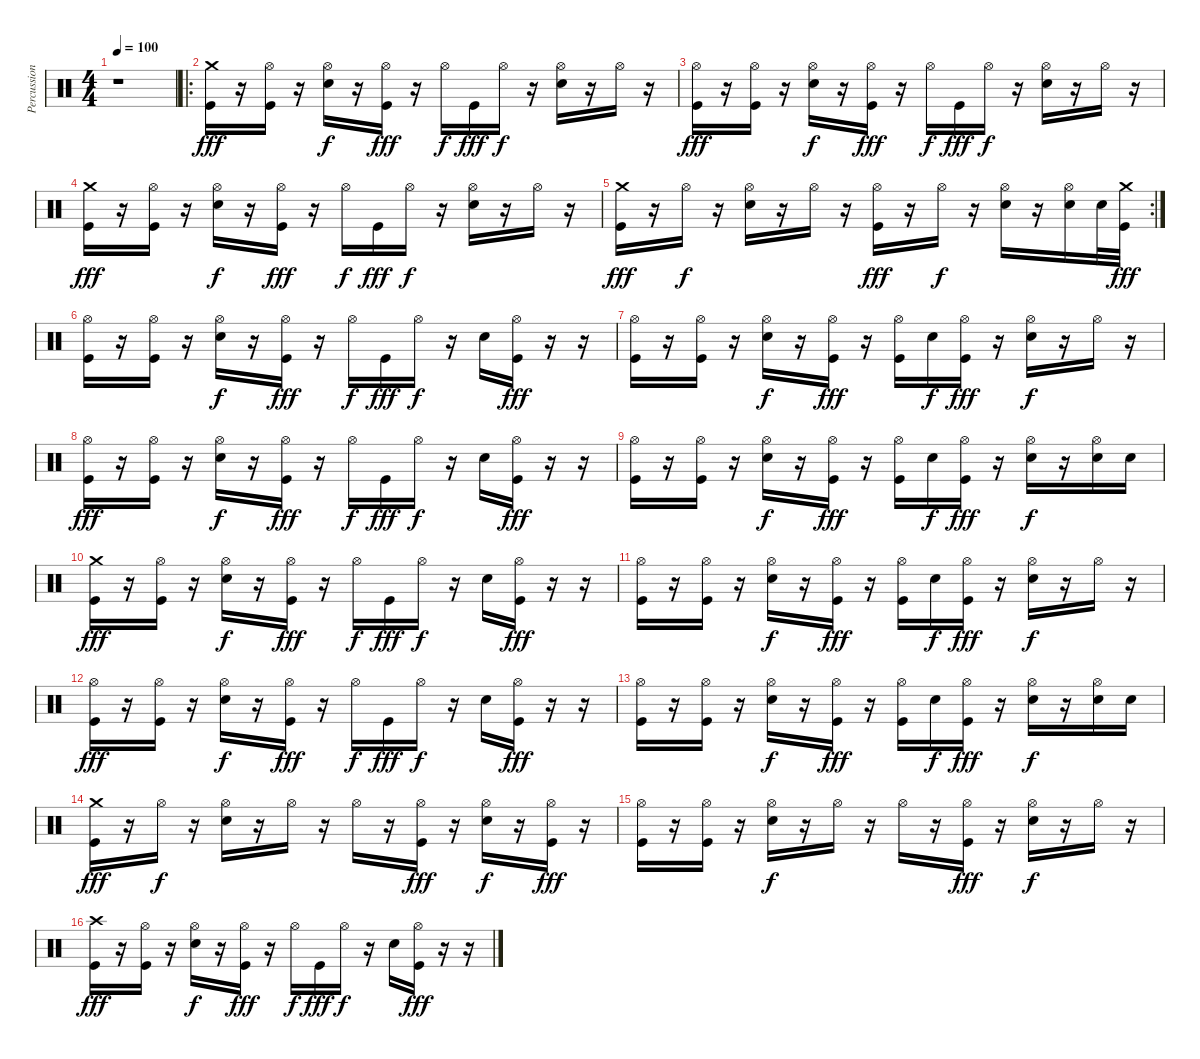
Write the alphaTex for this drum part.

\track ("Percussion" "Percussion") {instrument percussion}
\staff {score}
\articulation defaults
\ts (4 4)
\tempo 100
\clef neutral
\ks c
r.1{dy fff} |
\ro
("Crash medium (hit)" "Kick (hit)").16 r.16 ("Hi-Hat (open)" "Kick (hit)").16 r.16 ("Hi-Hat (open)" "Electric Snare (hit)").16{dy f} r.16 ("Hi-Hat (open)" "Kick (hit)").16{dy fff} r.16 "Hi-Hat (open)".16{dy f} "Kick (hit)".16{dy fff} "Hi-Hat (open)".16{dy f} r.16 ("Hi-Hat (open)" "Electric Snare (hit)").16 r.16 "Hi-Hat (open)".16 r.16 |
("Hi-Hat (open)" "Kick (hit)").16{dy fff} r.16 ("Hi-Hat (open)" "Kick (hit)").16 r.16 ("Hi-Hat (open)" "Electric Snare (hit)").16{dy f} r.16 ("Hi-Hat (open)" "Kick (hit)").16{dy fff} r.16 "Hi-Hat (open)".16{dy f} "Kick (hit)".16{dy fff} "Hi-Hat (open)".16{dy f} r.16 ("Hi-Hat (open)" "Electric Snare (hit)").16 r.16 "Hi-Hat (open)".16 r.16 |
("Crash medium (hit)" "Kick (hit)").16{dy fff} r.16 ("Hi-Hat (open)" "Kick (hit)").16 r.16 ("Hi-Hat (open)" "Electric Snare (hit)").16{dy f} r.16 ("Hi-Hat (open)" "Kick (hit)").16{dy fff} r.16 "Hi-Hat (open)".16{dy f} "Kick (hit)".16{dy fff} "Hi-Hat (open)".16{dy f} r.16 ("Hi-Hat (open)" "Electric Snare (hit)").16 r.16 "Hi-Hat (open)".16 r.16 |
\rc 2
("Crash medium (hit)" "Kick (hit)").16{dy fff} r.16 "Hi-Hat (open)".16{dy f} r.16 ("Hi-Hat (open)" "Electric Snare (hit)").16 r.16 "Hi-Hat (open)".16 r.16 ("Hi-Hat (open)" "Kick (hit)").16{dy fff} r.16 "Hi-Hat (open)".16{dy f} r.16 ("Hi-Hat (open)" "Electric Snare (hit)").16 r.16 ("Hi-Hat (open)" "Electric Snare (hit)").16 "Electric Snare (hit)".32 ("Crash medium (hit)" "Kick (hit)").32{dy fff} |
("Hi-Hat (open)" "Kick (hit)").16 r.16 ("Hi-Hat (open)" "Kick (hit)").16 r.16 ("Hi-Hat (open)" "Electric Snare (hit)").16{dy f} r.16 ("Hi-Hat (open)" "Kick (hit)").16{dy fff} r.16 "Hi-Hat (open)".16{dy f} "Kick (hit)".16{dy fff} "Hi-Hat (open)".16{dy f} r.16 "Electric Snare (hit)".16 ("Hi-Hat (open)" "Kick (hit)").16{dy fff} r.16 r.16 |
("Hi-Hat (open)" "Kick (hit)").16 r.16 ("Hi-Hat (open)" "Kick (hit)").16 r.16 ("Hi-Hat (open)" "Electric Snare (hit)").16{dy f} r.16 ("Hi-Hat (open)" "Kick (hit)").16{dy fff} r.16 ("Hi-Hat (open)" "Kick (hit)").16 "Electric Snare (hit)".16{dy f} ("Hi-Hat (open)" "Kick (hit)").16{dy fff} r.16 ("Hi-Hat (open)" "Electric Snare (hit)").16{dy f} r.16 "Hi-Hat (open)".16 r.16 |
("Hi-Hat (open)" "Kick (hit)").16{dy fff} r.16 ("Hi-Hat (open)" "Kick (hit)").16 r.16 ("Hi-Hat (open)" "Electric Snare (hit)").16{dy f} r.16 ("Hi-Hat (open)" "Kick (hit)").16{dy fff} r.16 "Hi-Hat (open)".16{dy f} "Kick (hit)".16{dy fff} "Hi-Hat (open)".16{dy f} r.16 "Electric Snare (hit)".16 ("Hi-Hat (open)" "Kick (hit)").16{dy fff} r.16 r.16 |
("Hi-Hat (open)" "Kick (hit)").16 r.16 ("Hi-Hat (open)" "Kick (hit)").16 r.16 ("Hi-Hat (open)" "Electric Snare (hit)").16{dy f} r.16 ("Hi-Hat (open)" "Kick (hit)").16{dy fff} r.16 ("Hi-Hat (open)" "Kick (hit)").16 "Electric Snare (hit)".16{dy f} ("Hi-Hat (open)" "Kick (hit)").16{dy fff} r.16 ("Hi-Hat (open)" "Electric Snare (hit)").16{dy f} r.16 ("Hi-Hat (open)" "Electric Snare (hit)").16 "Electric Snare (hit)".16 |
("Crash medium (hit)" "Kick (hit)").16{dy fff} r.16 ("Hi-Hat (open)" "Kick (hit)").16 r.16 ("Hi-Hat (open)" "Electric Snare (hit)").16{dy f} r.16 ("Hi-Hat (open)" "Kick (hit)").16{dy fff} r.16 "Hi-Hat (open)".16{dy f} "Kick (hit)".16{dy fff} "Hi-Hat (open)".16{dy f} r.16 "Electric Snare (hit)".16 ("Hi-Hat (open)" "Kick (hit)").16{dy fff} r.16 r.16 |
("Hi-Hat (open)" "Kick (hit)").16 r.16 ("Hi-Hat (open)" "Kick (hit)").16 r.16 ("Hi-Hat (open)" "Electric Snare (hit)").16{dy f} r.16 ("Hi-Hat (open)" "Kick (hit)").16{dy fff} r.16 ("Hi-Hat (open)" "Kick (hit)").16 "Electric Snare (hit)".16{dy f} ("Hi-Hat (open)" "Kick (hit)").16{dy fff} r.16 ("Hi-Hat (open)" "Electric Snare (hit)").16{dy f} r.16 "Hi-Hat (open)".16 r.16 |
("Hi-Hat (open)" "Kick (hit)").16{dy fff} r.16 ("Hi-Hat (open)" "Kick (hit)").16 r.16 ("Hi-Hat (open)" "Electric Snare (hit)").16{dy f} r.16 ("Hi-Hat (open)" "Kick (hit)").16{dy fff} r.16 "Hi-Hat (open)".16{dy f} "Kick (hit)".16{dy fff} "Hi-Hat (open)".16{dy f} r.16 "Electric Snare (hit)".16 ("Hi-Hat (open)" "Kick (hit)").16{dy fff} r.16 r.16 |
("Hi-Hat (open)" "Kick (hit)").16 r.16 ("Hi-Hat (open)" "Kick (hit)").16 r.16 ("Hi-Hat (open)" "Electric Snare (hit)").16{dy f} r.16 ("Hi-Hat (open)" "Kick (hit)").16{dy fff} r.16 ("Hi-Hat (open)" "Kick (hit)").16 "Electric Snare (hit)".16{dy f} ("Hi-Hat (open)" "Kick (hit)").16{dy fff} r.16 ("Hi-Hat (open)" "Electric Snare (hit)").16{dy f} r.16 ("Hi-Hat (open)" "Electric Snare (hit)").16 "Electric Snare (hit)".16 |
("Crash medium (hit)" "Kick (hit)").16{dy fff} r.16 "Hi-Hat (open)".16{dy f} r.16 ("Hi-Hat (open)" "Electric Snare (hit)").16 r.16 "Hi-Hat (open)".16 r.16 "Hi-Hat (open)".16 r.16 ("Hi-Hat (open)" "Kick (hit)").16{dy fff} r.16 ("Hi-Hat (open)" "Electric Snare (hit)").16{dy f} r.16 ("Hi-Hat (open)" "Kick (hit)").16{dy fff} r.16 |
("Hi-Hat (open)" "Kick (hit)").16 r.16 ("Hi-Hat (open)" "Kick (hit)").16 r.16 ("Hi-Hat (open)" "Electric Snare (hit)").16{dy f} r.16 "Hi-Hat (open)".16 r.16 "Hi-Hat (open)".16 r.16 ("Hi-Hat (open)" "Kick (hit)").16{dy fff} r.16 ("Hi-Hat (open)" "Electric Snare (hit)").16{dy f} r.16 "Hi-Hat (open)".16 r.16 |
("Crash high (hit)" "Kick (hit)").16{dy fff} r.16 ("Hi-Hat (open)" "Kick (hit)").16 r.16 ("Hi-Hat (open)" "Electric Snare (hit)").16{dy f} r.16 ("Hi-Hat (open)" "Kick (hit)").16{dy fff} r.16 "Hi-Hat (open)".16{dy f} "Kick (hit)".16{dy fff} "Hi-Hat (open)".16{dy f} r.16 "Electric Snare (hit)".16 ("Hi-Hat (open)" "Kick (hit)").16{dy fff} r.16 r.16
